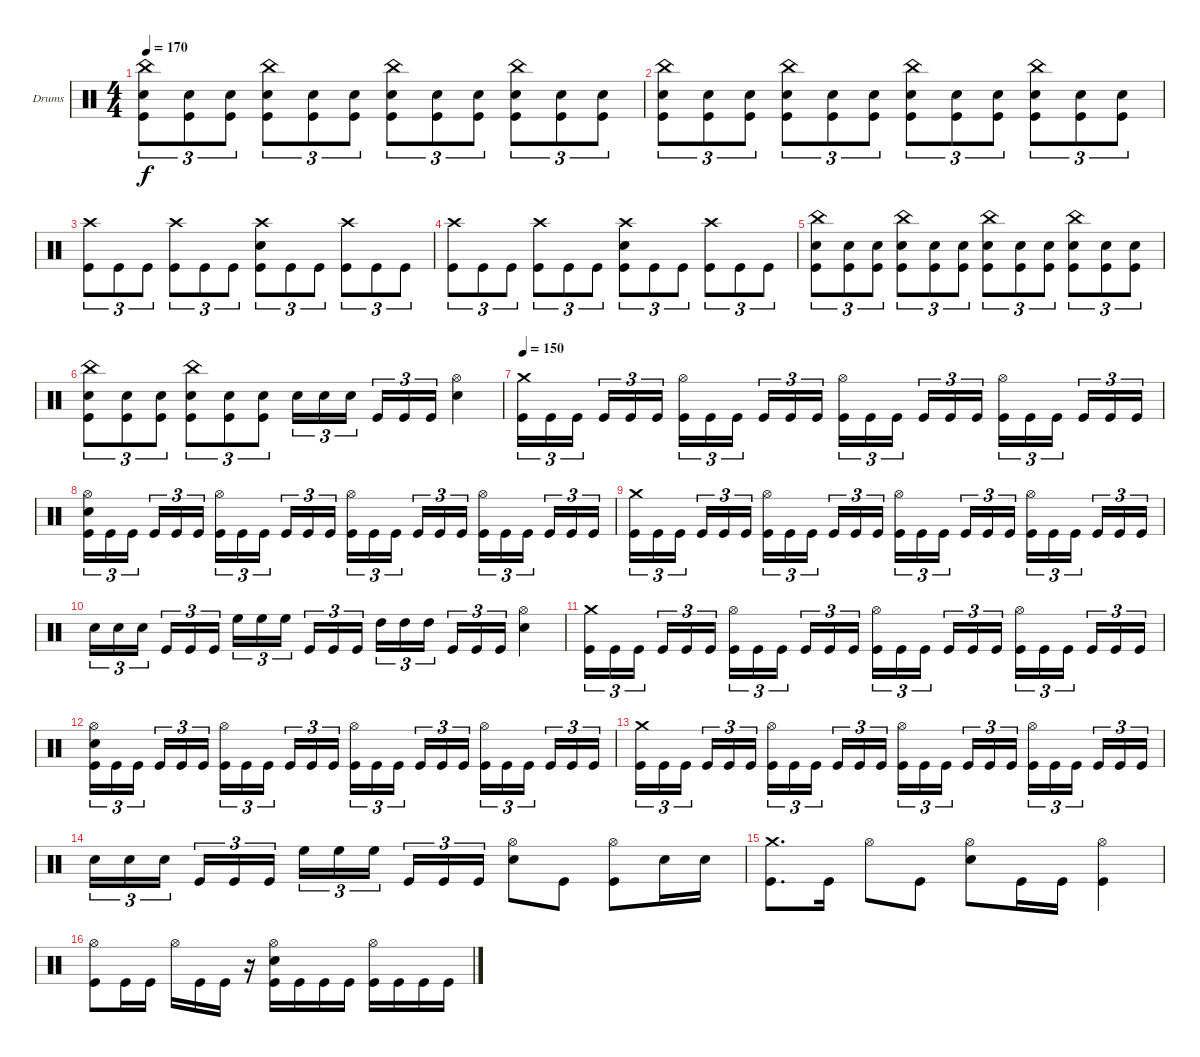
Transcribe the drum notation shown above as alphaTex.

\bracketExtendMode groupsimilarinstruments
\firstSystemTrackNameOrientation horizontal
\otherSystemsTrackNameOrientation horizontal
\track ("Drumkit" "Drums") {instrument percussion}
\staff {score}
\articulation defaults
\ts (4 4)
\tempo 170
\clef neutral
\ks c
("China (hit)" "Snare (hit) 2" "Kick (hit)").8{tu (3 2) dy f} ("Snare (hit) 2" "Kick (hit)").8{tu (3 2)} ("Snare (hit) 2" "Kick (hit)").8{tu (3 2)} ("China (hit)" "Snare (hit) 2" "Kick (hit)").8{tu (3 2)} ("Snare (hit) 2" "Kick (hit)").8{tu (3 2)} ("Snare (hit) 2" "Kick (hit)").8{tu (3 2)} ("China (hit)" "Snare (hit) 2" "Kick (hit)").8{tu (3 2)} ("Snare (hit) 2" "Kick (hit)").8{tu (3 2)} ("Snare (hit) 2" "Kick (hit)").8{tu (3 2)} ("China (hit)" "Snare (hit) 2" "Kick (hit)").8{tu (3 2)} ("Snare (hit) 2" "Kick (hit)").8{tu (3 2)} ("Snare (hit) 2" "Kick (hit)").8{tu (3 2)} |
("China (hit)" "Snare (hit) 2" "Kick (hit)").8{tu (3 2)} ("Snare (hit) 2" "Kick (hit)").8{tu (3 2)} ("Snare (hit) 2" "Kick (hit)").8{tu (3 2)} ("China (hit)" "Snare (hit) 2" "Kick (hit)").8{tu (3 2)} ("Snare (hit) 2" "Kick (hit)").8{tu (3 2)} ("Snare (hit) 2" "Kick (hit)").8{tu (3 2)} ("China (hit)" "Snare (hit) 2" "Kick (hit)").8{tu (3 2)} ("Snare (hit) 2" "Kick (hit)").8{tu (3 2)} ("Snare (hit) 2" "Kick (hit)").8{tu (3 2)} ("China (hit)" "Snare (hit) 2" "Kick (hit)").8{tu (3 2)} ("Snare (hit) 2" "Kick (hit)").8{tu (3 2)} ("Snare (hit) 2" "Kick (hit)").8{tu (3 2)} |
("Crash high (hit)" "Kick (hit)").8{tu (3 2)} "Kick (hit)".8{tu (3 2)} "Kick (hit)".8{tu (3 2)} ("Crash high (hit)" "Kick (hit)").8{tu (3 2)} "Kick (hit)".8{tu (3 2)} "Kick (hit)".8{tu (3 2)} ("Crash high (hit)" "Snare (hit) 2" "Kick (hit)").8{tu (3 2)} "Kick (hit)".8{tu (3 2)} "Kick (hit)".8{tu (3 2)} ("Crash high (hit)" "Kick (hit)").8{tu (3 2)} "Kick (hit)".8{tu (3 2)} "Kick (hit)".8{tu (3 2)} |
("Crash high (hit)" "Kick (hit)").8{tu (3 2)} "Kick (hit)".8{tu (3 2)} "Kick (hit)".8{tu (3 2)} ("Crash high (hit)" "Kick (hit)").8{tu (3 2)} "Kick (hit)".8{tu (3 2)} "Kick (hit)".8{tu (3 2)} ("Crash high (hit)" "Snare (hit) 2" "Kick (hit)").8{tu (3 2)} "Kick (hit)".8{tu (3 2)} "Kick (hit)".8{tu (3 2)} ("Crash high (hit)" "Kick (hit)").8{tu (3 2)} "Kick (hit)".8{tu (3 2)} "Kick (hit)".8{tu (3 2)} |
("China (hit)" "Snare (hit) 2" "Kick (hit)").8{tu (3 2)} ("Snare (hit) 2" "Kick (hit)").8{tu (3 2)} ("Snare (hit) 2" "Kick (hit)").8{tu (3 2)} ("China (hit)" "Snare (hit) 2" "Kick (hit)").8{tu (3 2)} ("Snare (hit) 2" "Kick (hit)").8{tu (3 2)} ("Snare (hit) 2" "Kick (hit)").8{tu (3 2)} ("China (hit)" "Snare (hit) 2" "Kick (hit)").8{tu (3 2)} ("Snare (hit) 2" "Kick (hit)").8{tu (3 2)} ("Snare (hit) 2" "Kick (hit)").8{tu (3 2)} ("China (hit)" "Snare (hit) 2" "Kick (hit)").8{tu (3 2)} ("Snare (hit) 2" "Kick (hit)").8{tu (3 2)} ("Snare (hit) 2" "Kick (hit)").8{tu (3 2)} |
("China (hit)" "Snare (hit) 2" "Kick (hit)").8{tu (3 2)} ("Snare (hit) 2" "Kick (hit)").8{tu (3 2)} ("Snare (hit) 2" "Kick (hit)").8{tu (3 2)} ("China (hit)" "Snare (hit) 2" "Kick (hit)").8{tu (3 2)} ("Snare (hit) 2" "Kick (hit)").8{tu (3 2)} ("Snare (hit) 2" "Kick (hit)").8{tu (3 2)} "Snare (hit) 2".16{tu (3 2)} "Snare (hit) 2".16{tu (3 2)} "Snare (hit) 2".16{tu (3 2)} "Kick (hit)".16{tu (3 2)} "Kick (hit)".16{tu (3 2)} "Kick (hit)".16{tu (3 2)} ("Hi-Hat (open)" "Snare (hit) 2").4 |
\tempo 150
("Crash medium (hit)" "Kick (hit)").16{tu (3 2)} "Kick (hit)".16{tu (3 2)} "Kick (hit)".16{tu (3 2)} "Kick (hit)".16{tu (3 2)} "Kick (hit)".16{tu (3 2)} "Kick (hit)".16{tu (3 2)} ("Hi-Hat (open)" "Kick (hit)").16{tu (3 2)} "Kick (hit)".16{tu (3 2)} "Kick (hit)".16{tu (3 2)} "Kick (hit)".16{tu (3 2)} "Kick (hit)".16{tu (3 2)} "Kick (hit)".16{tu (3 2)} ("Hi-Hat (open)" "Kick (hit)").16{tu (3 2)} "Kick (hit)".16{tu (3 2)} "Kick (hit)".16{tu (3 2)} "Kick (hit)".16{tu (3 2)} "Kick (hit)".16{tu (3 2)} "Kick (hit)".16{tu (3 2)} ("Hi-Hat (open)" "Kick (hit)").16{tu (3 2)} "Kick (hit)".16{tu (3 2)} "Kick (hit)".16{tu (3 2)} "Kick (hit)".16{tu (3 2)} "Kick (hit)".16{tu (3 2)} "Kick (hit)".16{tu (3 2)} |
("Hi-Hat (open)" "Snare (hit) 2" "Kick (hit)").16{tu (3 2)} "Kick (hit)".16{tu (3 2)} "Kick (hit)".16{tu (3 2)} "Kick (hit)".16{tu (3 2)} "Kick (hit)".16{tu (3 2)} "Kick (hit)".16{tu (3 2)} ("Hi-Hat (open)" "Kick (hit)").16{tu (3 2)} "Kick (hit)".16{tu (3 2)} "Kick (hit)".16{tu (3 2)} "Kick (hit)".16{tu (3 2)} "Kick (hit)".16{tu (3 2)} "Kick (hit)".16{tu (3 2)} ("Hi-Hat (open)" "Kick (hit)").16{tu (3 2)} "Kick (hit)".16{tu (3 2)} "Kick (hit)".16{tu (3 2)} "Kick (hit)".16{tu (3 2)} "Kick (hit)".16{tu (3 2)} "Kick (hit)".16{tu (3 2)} ("Hi-Hat (open)" "Kick (hit)").16{tu (3 2)} "Kick (hit)".16{tu (3 2)} "Kick (hit)".16{tu (3 2)} "Kick (hit)".16{tu (3 2)} "Kick (hit)".16{tu (3 2)} "Kick (hit)".16{tu (3 2)} |
("Crash medium (hit)" "Kick (hit)").16{tu (3 2)} "Kick (hit)".16{tu (3 2)} "Kick (hit)".16{tu (3 2)} "Kick (hit)".16{tu (3 2)} "Kick (hit)".16{tu (3 2)} "Kick (hit)".16{tu (3 2)} ("Hi-Hat (open)" "Kick (hit)").16{tu (3 2)} "Kick (hit)".16{tu (3 2)} "Kick (hit)".16{tu (3 2)} "Kick (hit)".16{tu (3 2)} "Kick (hit)".16{tu (3 2)} "Kick (hit)".16{tu (3 2)} ("Hi-Hat (open)" "Kick (hit)").16{tu (3 2)} "Kick (hit)".16{tu (3 2)} "Kick (hit)".16{tu (3 2)} "Kick (hit)".16{tu (3 2)} "Kick (hit)".16{tu (3 2)} "Kick (hit)".16{tu (3 2)} ("Hi-Hat (open)" "Kick (hit)").16{tu (3 2)} "Kick (hit)".16{tu (3 2)} "Kick (hit)".16{tu (3 2)} "Kick (hit)".16{tu (3 2)} "Kick (hit)".16{tu (3 2)} "Kick (hit)".16{tu (3 2)} |
"Snare (hit) 2".16{tu (3 2)} "Snare (hit) 2".16{tu (3 2)} "Snare (hit) 2".16{tu (3 2)} "Kick (hit)".16{tu (3 2)} "Kick (hit)".16{tu (3 2)} "Kick (hit)".16{tu (3 2)} "High Floor Tom (hit)".16{tu (3 2)} "High Floor Tom (hit)".16{tu (3 2)} "High Floor Tom (hit)".16{tu (3 2)} "Kick (hit)".16{tu (3 2)} "Kick (hit)".16{tu (3 2)} "Kick (hit)".16{tu (3 2)} "High Tom (hit)".16{tu (3 2)} "High Tom (hit)".16{tu (3 2)} "High Tom (hit)".16{tu (3 2)} "Kick (hit)".16{tu (3 2)} "Kick (hit)".16{tu (3 2)} "Kick (hit)".16{tu (3 2)} ("Hi-Hat (open)" "Snare (hit) 2").4 |
("Crash medium (hit)" "Kick (hit)").16{tu (3 2)} "Kick (hit)".16{tu (3 2)} "Kick (hit)".16{tu (3 2)} "Kick (hit)".16{tu (3 2)} "Kick (hit)".16{tu (3 2)} "Kick (hit)".16{tu (3 2)} ("Hi-Hat (open)" "Kick (hit)").16{tu (3 2)} "Kick (hit)".16{tu (3 2)} "Kick (hit)".16{tu (3 2)} "Kick (hit)".16{tu (3 2)} "Kick (hit)".16{tu (3 2)} "Kick (hit)".16{tu (3 2)} ("Hi-Hat (open)" "Kick (hit)").16{tu (3 2)} "Kick (hit)".16{tu (3 2)} "Kick (hit)".16{tu (3 2)} "Kick (hit)".16{tu (3 2)} "Kick (hit)".16{tu (3 2)} "Kick (hit)".16{tu (3 2)} ("Hi-Hat (open)" "Kick (hit)").16{tu (3 2)} "Kick (hit)".16{tu (3 2)} "Kick (hit)".16{tu (3 2)} "Kick (hit)".16{tu (3 2)} "Kick (hit)".16{tu (3 2)} "Kick (hit)".16{tu (3 2)} |
("Hi-Hat (open)" "Snare (hit) 2" "Kick (hit)").16{tu (3 2)} "Kick (hit)".16{tu (3 2)} "Kick (hit)".16{tu (3 2)} "Kick (hit)".16{tu (3 2)} "Kick (hit)".16{tu (3 2)} "Kick (hit)".16{tu (3 2)} ("Hi-Hat (open)" "Kick (hit)").16{tu (3 2)} "Kick (hit)".16{tu (3 2)} "Kick (hit)".16{tu (3 2)} "Kick (hit)".16{tu (3 2)} "Kick (hit)".16{tu (3 2)} "Kick (hit)".16{tu (3 2)} ("Hi-Hat (open)" "Kick (hit)").16{tu (3 2)} "Kick (hit)".16{tu (3 2)} "Kick (hit)".16{tu (3 2)} "Kick (hit)".16{tu (3 2)} "Kick (hit)".16{tu (3 2)} "Kick (hit)".16{tu (3 2)} ("Hi-Hat (open)" "Kick (hit)").16{tu (3 2)} "Kick (hit)".16{tu (3 2)} "Kick (hit)".16{tu (3 2)} "Kick (hit)".16{tu (3 2)} "Kick (hit)".16{tu (3 2)} "Kick (hit)".16{tu (3 2)} |
("Crash medium (hit)" "Kick (hit)").16{tu (3 2)} "Kick (hit)".16{tu (3 2)} "Kick (hit)".16{tu (3 2)} "Kick (hit)".16{tu (3 2)} "Kick (hit)".16{tu (3 2)} "Kick (hit)".16{tu (3 2)} ("Hi-Hat (open)" "Kick (hit)").16{tu (3 2)} "Kick (hit)".16{tu (3 2)} "Kick (hit)".16{tu (3 2)} "Kick (hit)".16{tu (3 2)} "Kick (hit)".16{tu (3 2)} "Kick (hit)".16{tu (3 2)} ("Hi-Hat (open)" "Kick (hit)").16{tu (3 2)} "Kick (hit)".16{tu (3 2)} "Kick (hit)".16{tu (3 2)} "Kick (hit)".16{tu (3 2)} "Kick (hit)".16{tu (3 2)} "Kick (hit)".16{tu (3 2)} ("Hi-Hat (open)" "Kick (hit)").16{tu (3 2)} "Kick (hit)".16{tu (3 2)} "Kick (hit)".16{tu (3 2)} "Kick (hit)".16{tu (3 2)} "Kick (hit)".16{tu (3 2)} "Kick (hit)".16{tu (3 2)} |
"Snare (hit) 2".16{tu (3 2)} "Snare (hit) 2".16{tu (3 2)} "Snare (hit) 2".16{tu (3 2)} "Kick (hit)".16{tu (3 2)} "Kick (hit)".16{tu (3 2)} "Kick (hit)".16{tu (3 2)} "High Floor Tom (hit)".16{tu (3 2)} "High Floor Tom (hit)".16{tu (3 2)} "High Floor Tom (hit)".16{tu (3 2)} "Kick (hit)".16{tu (3 2)} "Kick (hit)".16{tu (3 2)} "Kick (hit)".16{tu (3 2)} ("Hi-Hat (open)" "Snare (hit) 2").8 "Kick (hit)".8 ("Hi-Hat (open)" "Kick (hit)").8 "Snare (hit) 2".16 "Snare (hit) 2".16 |
("Crash medium (hit)" "Kick (hit)").8{d} "Kick (hit)".16 "Hi-Hat (open)".8 "Kick (hit)".8 ("Hi-Hat (open)" "Snare (hit) 2").8 "Kick (hit)".16 "Kick (hit)".16 ("Hi-Hat (open)" "Kick (hit)").4 |
("Hi-Hat (open)" "Kick (hit)").8 "Kick (hit)".16 "Kick (hit)".16 "Hi-Hat (open)".16 "Kick (hit)".16 "Kick (hit)".16 r.16 ("Hi-Hat (open)" "Snare (hit) 2" "Kick (hit)").16 "Kick (hit)".16 "Kick (hit)".16 "Kick (hit)".16 ("Hi-Hat (open)" "Kick (hit)").16 "Kick (hit)".16 "Kick (hit)".16 "Kick (hit)".16
